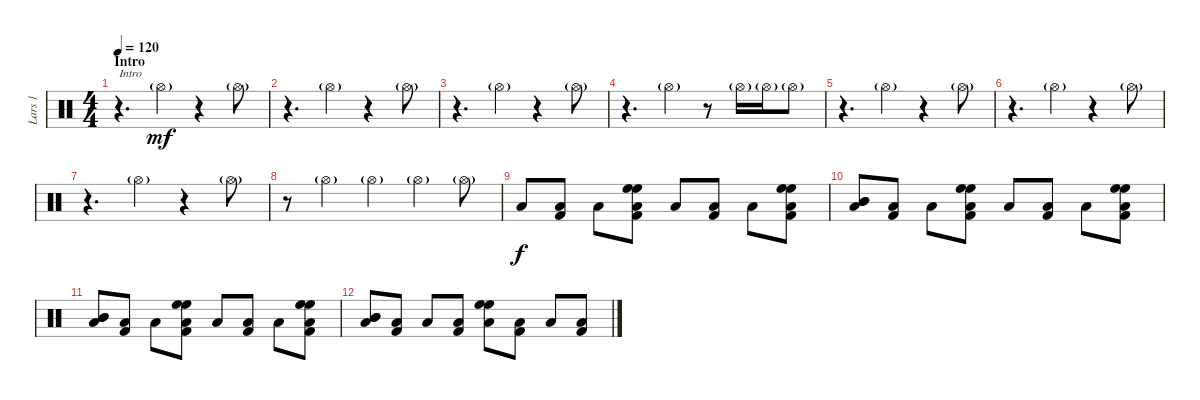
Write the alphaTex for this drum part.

\track ("Lars 1" "Lars 1") {instrument percussion}
\staff {score}
\articulation defaults
\ts (4 4)
\section ("" "Intro")
\tempo 120
\clef neutral
\ks c
r.4{d txt "Intro" dy mf} "Hi-Hat (open)"{g}.4 r.4 "Hi-Hat (open)"{g}.8 |
r.4{d} "Hi-Hat (open)"{g}.4 r.4 "Hi-Hat (open)"{g}.8 |
r.4{d} "Hi-Hat (open)"{g}.4 r.4 "Hi-Hat (open)"{g}.8 |
r.4{d} "Hi-Hat (open)"{g}.4 r.8 "Hi-Hat (open)"{g}.16 "Hi-Hat (open)"{g}.16 "Hi-Hat (open)"{g}.8 |
r.4{d} "Hi-Hat (open)"{g}.4 r.4 "Hi-Hat (open)"{g}.8 |
r.4{d} "Hi-Hat (open)"{g}.4 r.4 "Hi-Hat (open)"{g}.8 |
r.4{d} "Hi-Hat (open)"{g}.4 r.4 "Hi-Hat (open)"{g}.8 |
r.8 "Hi-Hat (open)"{g}.4 "Hi-Hat (open)"{g}.4 "Hi-Hat (open)"{g}.4 "Hi-Hat (open)"{g}.8 |
"Low Floor Tom (hit)".8{dy f} ("Low Floor Tom (hit)" "Kick (hit) 2").8 "Low Floor Tom (hit)".8 ("High Floor Tom (hit)" "Low Floor Tom (hit)" "High Floor Tom (hit)" "Kick (hit) 2").8 "Low Floor Tom (hit)".8 ("Low Floor Tom (hit)" "Kick (hit) 2").8 "Low Floor Tom (hit)".8 ("High Floor Tom (hit)" "Low Floor Tom (hit)" "High Floor Tom (hit)" "Kick (hit) 2").8 |
("Mid Tom (hit)" "Low Floor Tom (hit)" "Mid Tom (hit)").8 ("Low Floor Tom (hit)" "Kick (hit) 2").8 "Low Floor Tom (hit)".8 ("High Floor Tom (hit)" "Low Floor Tom (hit)" "High Floor Tom (hit)" "Kick (hit) 2").8 "Low Floor Tom (hit)".8 ("Low Floor Tom (hit)" "Kick (hit) 2").8 "Low Floor Tom (hit)".8 ("High Floor Tom (hit)" "Low Floor Tom (hit)" "High Floor Tom (hit)" "Kick (hit) 2").8 |
("Mid Tom (hit)" "Low Floor Tom (hit)" "Mid Tom (hit)").8 ("Low Floor Tom (hit)" "Kick (hit) 2").8 "Low Floor Tom (hit)".8 ("High Floor Tom (hit)" "Low Floor Tom (hit)" "High Floor Tom (hit)" "Kick (hit) 2").8 "Low Floor Tom (hit)".8 ("Low Floor Tom (hit)" "Kick (hit) 2").8 "Low Floor Tom (hit)".8 ("High Floor Tom (hit)" "Low Floor Tom (hit)" "High Floor Tom (hit)" "Kick (hit) 2").8 |
("Mid Tom (hit)" "Low Floor Tom (hit)" "Mid Tom (hit)").8 ("Low Floor Tom (hit)" "Kick (hit) 2").8 "Low Floor Tom (hit)".8 ("Low Floor Tom (hit)" "Kick (hit) 2").8 ("High Floor Tom (hit)" "Low Floor Tom (hit)" "High Floor Tom (hit)").8 ("Low Floor Tom (hit)" "Kick (hit) 2").8 "Low Floor Tom (hit)".8 ("Low Floor Tom (hit)" "Kick (hit) 2").8
